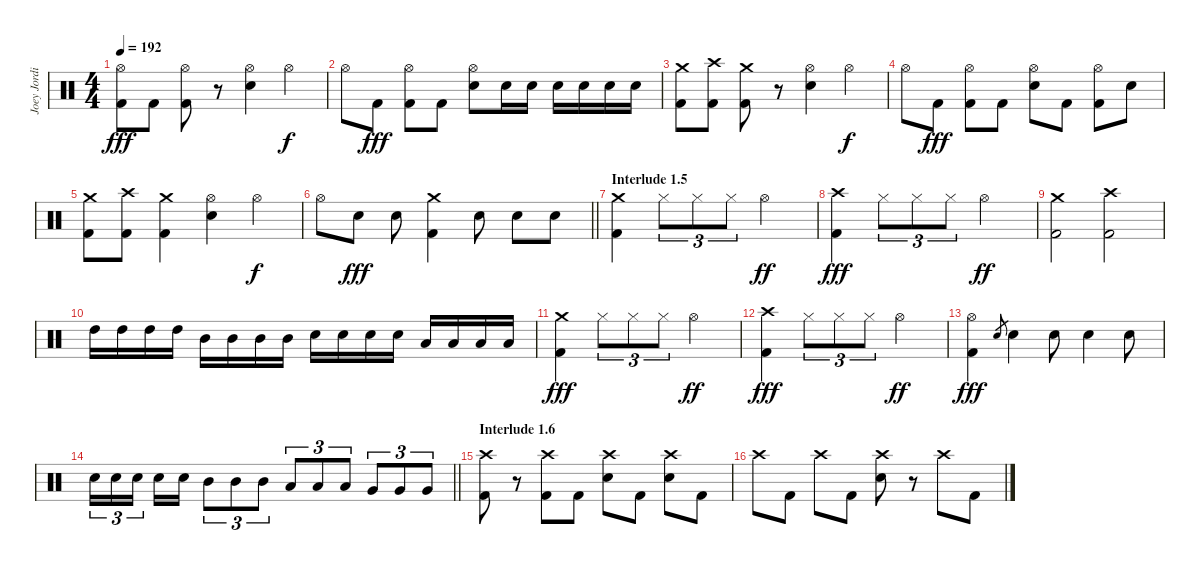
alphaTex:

\track ("Joey Jordison" "Joey Jordi") {instrument percussion}
\staff {score}
\articulation defaults
\ts (4 4)
\tempo 192
\clef neutral
\ks c
("Hi-Hat (open)" "Kick (hit) 2").8{dy fff} "Kick (hit) 2".8 ("Hi-Hat (open)" "Kick (hit) 2").8 r.8 ("Hi-Hat (open)" "Electric Snare (hit)").4 "Hi-Hat (open)".4{dy f} |
"Hi-Hat (open)".8 "Kick (hit) 2".8{dy fff} ("Hi-Hat (open)" "Kick (hit) 2").8 "Kick (hit) 2".8 ("Hi-Hat (open)" "Electric Snare (hit)").8 "Electric Snare (hit)".16 "Electric Snare (hit)".16 "Electric Snare (hit)".16 "Electric Snare (hit)".16 "Electric Snare (hit)".16 "Electric Snare (hit)".16 |
("Crash medium (hit)" "Kick (hit) 2").8 ("Crash high (hit)" "Kick (hit) 2").8 ("Crash medium (hit)" "Kick (hit) 2").8 r.8 ("Hi-Hat (open)" "Electric Snare (hit)").4 "Hi-Hat (open)".4{dy f} |
"Hi-Hat (open)".8 "Kick (hit) 2".8{dy fff} ("Hi-Hat (open)" "Kick (hit) 2").8 "Kick (hit) 2".8 ("Hi-Hat (open)" "Electric Snare (hit)").8 "Kick (hit) 2".8 ("Hi-Hat (open)" "Kick (hit) 2").8 "Electric Snare (hit)".8 |
("Crash medium (hit)" "Kick (hit) 2").8 ("Crash high (hit)" "Kick (hit) 2").8 ("Crash medium (hit)" "Kick (hit) 2").4 ("Hi-Hat (open)" "Electric Snare (hit)").4 "Hi-Hat (open)".4{dy f} |
\barLineRight lightlight "Hi-Hat (open)".8 "Electric Snare (hit)".8{dy fff} "Electric Snare (hit)".8
("Crash medium (hit)" "Kick (hit) 2").4 "Electric Snare (hit)".8 "Electric Snare (hit)".8 "Electric Snare (hit)".8 |
\section ("" "Interlude 1.5")
("Crash medium (hit)" "Kick (hit) 2").4 "Hi-Hat (closed)".8{tu (3 2)} "Hi-Hat (closed)".8{tu (3 2)} "Hi-Hat (closed)".8{tu (3 2)} "Hi-Hat (open)".2{dy ff} |
("Crash high (hit)" "Kick (hit) 2").4{dy fff} "Hi-Hat (closed)".8{tu (3 2)} "Hi-Hat (closed)".8{tu (3 2)} "Hi-Hat (closed)".8{tu (3 2)} "Hi-Hat (open)".2{dy ff} |
("Crash medium (hit)" "Kick (hit) 2").2 ("Crash high (hit)" "Kick (hit) 2").2 |
"High Tom (hit)".16 "High Tom (hit)".16 "High Tom (hit)".16 "High Tom (hit)".16 "Mid Tom (hit)".16 "Mid Tom (hit)".16 "Mid Tom (hit)".16 "Mid Tom (hit)".16 "Electric Snare (hit)".16 "Electric Snare (hit)".16 "Electric Snare (hit)".16 "Electric Snare (hit)".16 "Low Tom (hit)".16 "Low Tom (hit)".16 "Low Tom (hit)".16 "Low Tom (hit)".16 |
("Crash medium (hit)" "Kick (hit) 2").4{dy fff} "Hi-Hat (closed)".8{tu (3 2)} "Hi-Hat (closed)".8{tu (3 2)} "Hi-Hat (closed)".8{tu (3 2)} "Hi-Hat (open)".2{dy ff} |
("Crash high (hit)" "Kick (hit) 2").4{dy fff} "Hi-Hat (closed)".8{tu (3 2)} "Hi-Hat (closed)".8{tu (3 2)} "Hi-Hat (closed)".8{tu (3 2)} "Hi-Hat (open)".2{dy ff} |
("Hi-Hat (open)" "Kick (hit) 2").4{dy fff} "Electric Snare (hit)".8{gr} "Electric Snare (hit)".4 "Electric Snare (hit)".8 "Electric Snare (hit)".4 "Electric Snare (hit)".8 |
\barLineRight lightlight "Electric Snare (hit)".16{tu (3 2)} "Electric Snare (hit)".16{tu (3 2)} "Electric Snare (hit)".16{tu (3 2) beam splitsecondary} "Electric Snare (hit)".16 "Electric Snare (hit)".16 "Mid Tom (hit)".8{tu (3 2)} "Mid Tom (hit)".8{tu (3 2)} "Mid Tom (hit)".8{tu (3 2)} "Low Tom (hit)".8{tu (3 2)} "Low Tom (hit)".8{tu (3 2)} "Low Tom (hit)".8{tu (3 2)} "Very Low Tom (hit)".8{tu (3 2)} "Very Low Tom (hit)".8{tu (3 2)} "Very Low Tom (hit)".8{tu (3 2)}
|
\section ("" "Interlude 1.6")
("Crash high (hit)" "Kick (hit) 2").8 r.8 ("Crash high (hit)" "Kick (hit) 2").8 "Kick (hit) 2".8 ("Crash high (hit)" "Electric Snare (hit)").8 "Kick (hit) 2".8 ("Crash high (hit)" "Electric Snare (hit)").8 "Kick (hit) 2".8 |
"Crash high (hit)".8 "Kick (hit) 2".8 "Crash high (hit)".8 "Kick (hit) 2".8 ("Crash high (hit)" "Electric Snare (hit)").8 r.8 "Crash high (hit)".8 "Kick (hit) 2".8
